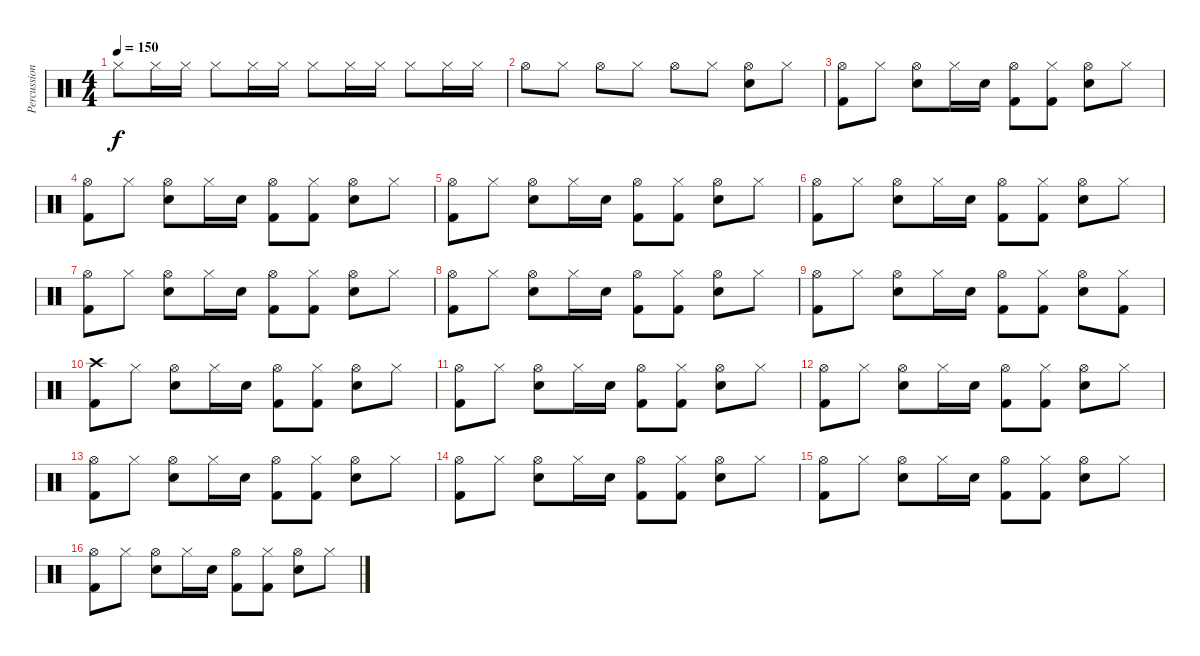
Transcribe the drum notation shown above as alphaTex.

\track ("Percussion" "Percussion") {instrument percussion}
\staff {score}
\articulation defaults
\ts (4 4)
\tempo 150
\clef neutral
\ks c "Hi-Hat (closed)".8{dy f} "Hi-Hat (closed)".16 "Hi-Hat (closed)".16 "Hi-Hat (closed)".8 "Hi-Hat (closed)".16 "Hi-Hat (closed)".16 "Hi-Hat (closed)".8 "Hi-Hat (closed)".16 "Hi-Hat (closed)".16 "Hi-Hat (closed)".8 "Hi-Hat (closed)".16 "Hi-Hat (closed)".16
|
"Hi-Hat (open)".8 "Hi-Hat (closed)".8 "Hi-Hat (open)".8 "Hi-Hat (closed)".8 "Hi-Hat (open)".8 "Hi-Hat (closed)".8 ("Hi-Hat (open)" "Electric Snare (hit)").8 "Hi-Hat (closed)".8 |
("Hi-Hat (open)" "Kick (hit) 2").8 "Hi-Hat (closed)".8 ("Hi-Hat (open)" "Electric Snare (hit)").8 "Hi-Hat (closed)".16 "Electric Snare (hit)".16 ("Hi-Hat (open)" "Kick (hit) 2").8 ("Hi-Hat (closed)" "Kick (hit) 2").8 ("Hi-Hat (open)" "Electric Snare (hit)").8 "Hi-Hat (closed)".8 |
("Hi-Hat (open)" "Kick (hit) 2").8 "Hi-Hat (closed)".8 ("Hi-Hat (open)" "Electric Snare (hit)").8 "Hi-Hat (closed)".16 "Electric Snare (hit)".16 ("Hi-Hat (open)" "Kick (hit) 2").8 ("Hi-Hat (closed)" "Kick (hit) 2").8 ("Hi-Hat (open)" "Electric Snare (hit)").8 "Hi-Hat (closed)".8 |
("Hi-Hat (open)" "Kick (hit) 2").8 "Hi-Hat (closed)".8 ("Hi-Hat (open)" "Electric Snare (hit)").8 "Hi-Hat (closed)".16 "Electric Snare (hit)".16 ("Hi-Hat (open)" "Kick (hit) 2").8 ("Hi-Hat (closed)" "Kick (hit) 2").8 ("Hi-Hat (open)" "Electric Snare (hit)").8 "Hi-Hat (closed)".8 |
("Hi-Hat (open)" "Kick (hit) 2").8 "Hi-Hat (closed)".8 ("Hi-Hat (open)" "Electric Snare (hit)").8 "Hi-Hat (closed)".16 "Electric Snare (hit)".16 ("Hi-Hat (open)" "Kick (hit) 2").8 ("Hi-Hat (closed)" "Kick (hit) 2").8 ("Hi-Hat (open)" "Electric Snare (hit)").8 "Hi-Hat (closed)".8 |
("Hi-Hat (open)" "Kick (hit) 2").8 "Hi-Hat (closed)".8 ("Hi-Hat (open)" "Electric Snare (hit)").8 "Hi-Hat (closed)".16 "Electric Snare (hit)".16 ("Hi-Hat (open)" "Kick (hit) 2").8 ("Hi-Hat (closed)" "Kick (hit) 2").8 ("Hi-Hat (open)" "Electric Snare (hit)").8 "Hi-Hat (closed)".8 |
("Hi-Hat (open)" "Kick (hit) 2").8 "Hi-Hat (closed)".8 ("Hi-Hat (open)" "Electric Snare (hit)").8 "Hi-Hat (closed)".16 "Electric Snare (hit)".16 ("Hi-Hat (open)" "Kick (hit) 2").8 ("Hi-Hat (closed)" "Kick (hit) 2").8 ("Hi-Hat (open)" "Electric Snare (hit)").8 "Hi-Hat (closed)".8 |
("Hi-Hat (open)" "Kick (hit) 2").8 "Hi-Hat (closed)".8 ("Hi-Hat (open)" "Electric Snare (hit)").8 "Hi-Hat (closed)".16 "Electric Snare (hit)".16 ("Hi-Hat (open)" "Kick (hit) 2").8 ("Hi-Hat (closed)" "Kick (hit) 2").8 ("Hi-Hat (open)" "Electric Snare (hit)").8 ("Hi-Hat (closed)" "Kick (hit) 2").8 |
("Crash high (hit)" "Kick (hit) 2").8 "Hi-Hat (closed)".8 ("Hi-Hat (open)" "Electric Snare (hit)").8 "Hi-Hat (closed)".16 "Electric Snare (hit)".16 ("Hi-Hat (open)" "Kick (hit) 2").8 ("Hi-Hat (closed)" "Kick (hit) 2").8 ("Hi-Hat (open)" "Electric Snare (hit)").8 "Hi-Hat (closed)".8 |
("Hi-Hat (open)" "Kick (hit) 2").8 "Hi-Hat (closed)".8 ("Hi-Hat (open)" "Electric Snare (hit)").8 "Hi-Hat (closed)".16 "Electric Snare (hit)".16 ("Hi-Hat (open)" "Kick (hit) 2").8 ("Hi-Hat (closed)" "Kick (hit) 2").8 ("Hi-Hat (open)" "Electric Snare (hit)").8 "Hi-Hat (closed)".8 |
("Hi-Hat (open)" "Kick (hit) 2").8 "Hi-Hat (closed)".8 ("Hi-Hat (open)" "Electric Snare (hit)").8 "Hi-Hat (closed)".16 "Electric Snare (hit)".16 ("Hi-Hat (open)" "Kick (hit) 2").8 ("Hi-Hat (closed)" "Kick (hit) 2").8 ("Hi-Hat (open)" "Electric Snare (hit)").8 "Hi-Hat (closed)".8 |
("Hi-Hat (open)" "Kick (hit) 2").8 "Hi-Hat (closed)".8 ("Hi-Hat (open)" "Electric Snare (hit)").8 "Hi-Hat (closed)".16 "Electric Snare (hit)".16 ("Hi-Hat (open)" "Kick (hit) 2").8 ("Hi-Hat (closed)" "Kick (hit) 2").8 ("Hi-Hat (open)" "Electric Snare (hit)").8 "Hi-Hat (closed)".8 |
("Hi-Hat (open)" "Kick (hit) 2").8 "Hi-Hat (closed)".8 ("Hi-Hat (open)" "Electric Snare (hit)").8 "Hi-Hat (closed)".16 "Electric Snare (hit)".16 ("Hi-Hat (open)" "Kick (hit) 2").8 ("Hi-Hat (closed)" "Kick (hit) 2").8 ("Hi-Hat (open)" "Electric Snare (hit)").8 "Hi-Hat (closed)".8 |
("Hi-Hat (open)" "Kick (hit) 2").8 "Hi-Hat (closed)".8 ("Hi-Hat (open)" "Electric Snare (hit)").8 "Hi-Hat (closed)".16 "Electric Snare (hit)".16 ("Hi-Hat (open)" "Kick (hit) 2").8 ("Hi-Hat (closed)" "Kick (hit) 2").8 ("Hi-Hat (open)" "Electric Snare (hit)").8 "Hi-Hat (closed)".8 |
("Hi-Hat (open)" "Kick (hit) 2").8 "Hi-Hat (closed)".8 ("Hi-Hat (open)" "Electric Snare (hit)").8 "Hi-Hat (closed)".16 "Electric Snare (hit)".16 ("Hi-Hat (open)" "Kick (hit) 2").8 ("Hi-Hat (closed)" "Kick (hit) 2").8 ("Hi-Hat (open)" "Electric Snare (hit)").8 "Hi-Hat (closed)".8
